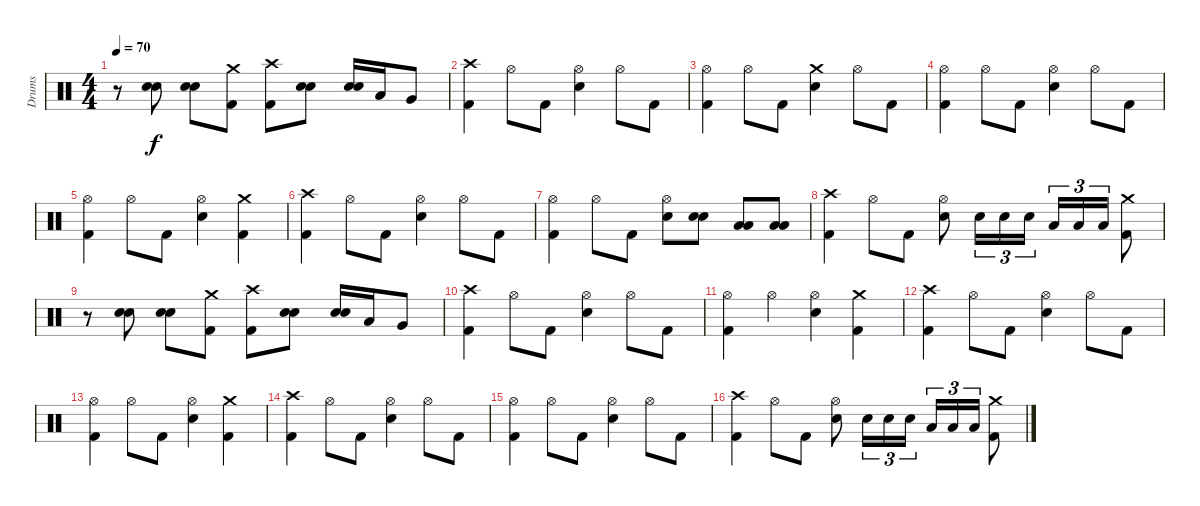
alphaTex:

\track ("Drums" "Drums") {instrument percussion}
\staff {score}
\articulation defaults
\ts (4 4)
\tempo 70
\clef neutral
\ks c
r.8{dy f} ("Electric Snare (hit)" "Electric Snare (hit)").8{bu 60} ("Electric Snare (hit)" "Electric Snare (hit)").8{bu 60} ("Crash medium (hit)" "Kick (hit) 2").8 ("Crash high (hit)" "Kick (hit) 2").8 ("Electric Snare (hit)" "Electric Snare (hit)").8{bu 60} ("Electric Snare (hit)" "Electric Snare (hit)").16{bu 60} "Low Tom (hit)".16 "Very Low Tom (hit)".8 |
("Crash high (hit)" "Kick (hit) 2").4 "Hi-Hat (open)".8 "Kick (hit) 2".8 ("Hi-Hat (open)" "Electric Snare (hit)").4 "Hi-Hat (open)".8 "Kick (hit) 2".8 |
("Hi-Hat (open)" "Kick (hit) 2").4 "Hi-Hat (open)".8 "Kick (hit) 2".8 ("Crash medium (hit)" "Electric Snare (hit)").4 "Hi-Hat (open)".8 "Kick (hit) 2".8 |
("Hi-Hat (open)" "Kick (hit) 2").4 "Hi-Hat (open)".8 "Kick (hit) 2".8 ("Hi-Hat (open)" "Electric Snare (hit)").4 "Hi-Hat (open)".8 "Kick (hit) 2".8 |
("Hi-Hat (open)" "Kick (hit) 2").4 "Hi-Hat (open)".8 "Kick (hit) 2".8 ("Hi-Hat (open)" "Electric Snare (hit)").4 ("Crash medium (hit)" "Kick (hit) 2").4 |
("Crash high (hit)" "Kick (hit) 2").4 "Hi-Hat (open)".8 "Kick (hit) 2".8 ("Hi-Hat (open)" "Electric Snare (hit)").4 "Hi-Hat (open)".8 "Kick (hit) 2".8 |
("Hi-Hat (open)" "Kick (hit) 2").4 "Hi-Hat (open)".8 "Kick (hit) 2".8 ("Hi-Hat (open)" "Electric Snare (hit)").8 ("Electric Snare (hit)" "Electric Snare (hit)").8{bu 60} ("Low Tom (hit)" "Low Tom (hit)").8{bu 60} ("Low Tom (hit)" "Low Tom (hit)").8{bu 60} |
("Crash high (hit)" "Kick (hit) 2").4 "Hi-Hat (open)".8 "Kick (hit) 2".8 ("Hi-Hat (open)" "Electric Snare (hit)").8 "Electric Snare (hit)".16{tu (3 2)} "Electric Snare (hit)".16{tu (3 2)} "Electric Snare (hit)".16{tu (3 2)} "Low Tom (hit)".16{tu (3 2)} "Low Tom (hit)".16{tu (3 2)} "Low Tom (hit)".16{tu (3 2)} ("Crash medium (hit)" "Kick (hit) 2").8 |
r.8 ("Electric Snare (hit)" "Electric Snare (hit)").8{bu 60} ("Electric Snare (hit)" "Electric Snare (hit)").8{bu 60} ("Crash medium (hit)" "Kick (hit) 2").8 ("Crash high (hit)" "Kick (hit) 2").8 ("Electric Snare (hit)" "Electric Snare (hit)").8{bu 60} ("Electric Snare (hit)" "Electric Snare (hit)").16{bu 60} "Low Tom (hit)".16 "Very Low Tom (hit)".8 |
("Crash high (hit)" "Kick (hit) 2").4 "Hi-Hat (open)".8 "Kick (hit) 2".8 ("Hi-Hat (open)" "Electric Snare (hit)").4 "Hi-Hat (open)".8 "Kick (hit) 2".8 |
("Hi-Hat (open)" "Kick (hit) 2").4 "Hi-Hat (open)".4 ("Hi-Hat (open)" "Electric Snare (hit)").4 ("Crash medium (hit)" "Kick (hit) 2").4 |
("Crash high (hit)" "Kick (hit) 2").4 "Hi-Hat (open)".8 "Kick (hit) 2".8 ("Hi-Hat (open)" "Electric Snare (hit)").4 "Hi-Hat (open)".8 "Kick (hit) 2".8 |
("Hi-Hat (open)" "Kick (hit) 2").4 "Hi-Hat (open)".8 "Kick (hit) 2".8 ("Hi-Hat (open)" "Electric Snare (hit)").4 ("Crash medium (hit)" "Kick (hit) 2").4 |
("Crash high (hit)" "Kick (hit) 2").4 "Hi-Hat (open)".8 "Kick (hit) 2".8 ("Hi-Hat (open)" "Electric Snare (hit)").4 "Hi-Hat (open)".8 "Kick (hit) 2".8 |
("Hi-Hat (open)" "Kick (hit) 2").4 "Hi-Hat (open)".8 "Kick (hit) 2".8 ("Hi-Hat (open)" "Electric Snare (hit)").4 "Hi-Hat (open)".8 "Kick (hit) 2".8 |
("Crash high (hit)" "Kick (hit) 2").4 "Hi-Hat (open)".8 "Kick (hit) 2".8 ("Hi-Hat (open)" "Electric Snare (hit)").8 "Electric Snare (hit)".16{tu (3 2)} "Electric Snare (hit)".16{tu (3 2)} "Electric Snare (hit)".16{tu (3 2)} "Low Tom (hit)".16{tu (3 2)} "Low Tom (hit)".16{tu (3 2)} "Low Tom (hit)".16{tu (3 2)} ("Crash medium (hit)" "Kick (hit) 2").8
